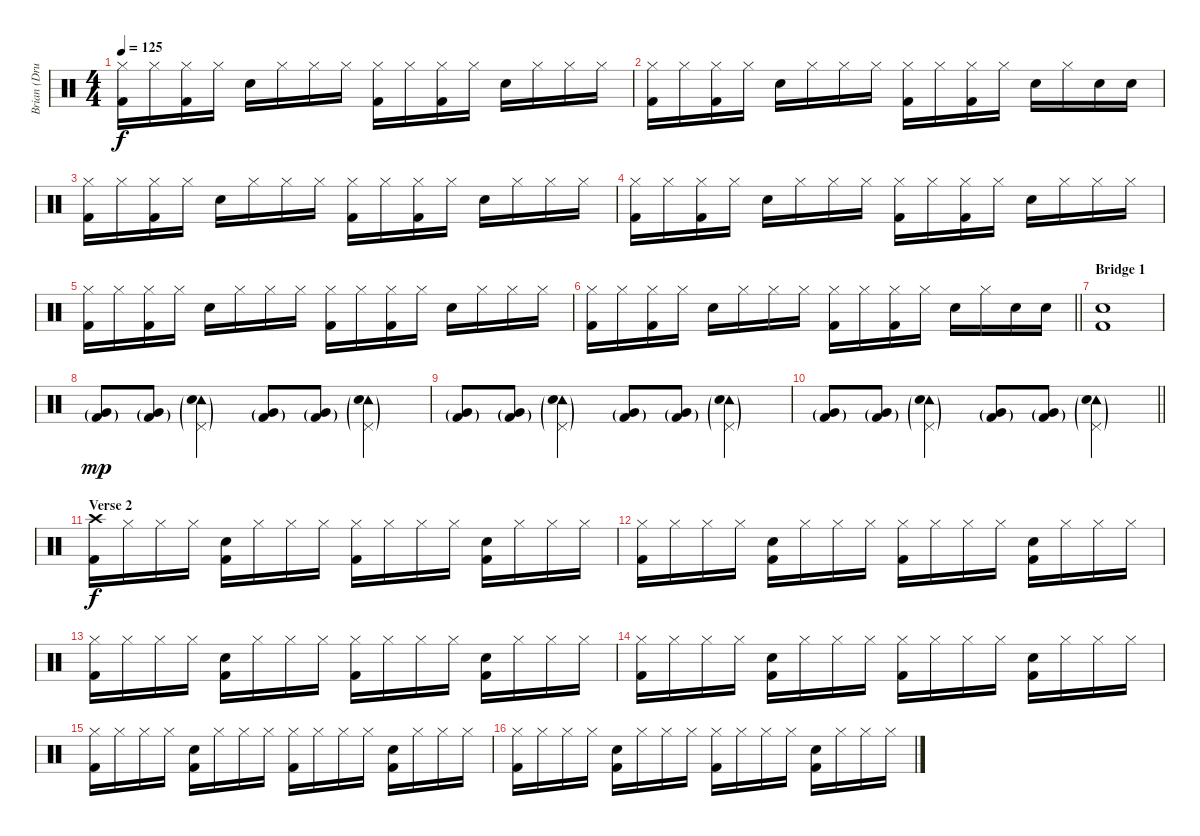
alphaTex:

\track ("Brian (Drums)" "Brian (Dru") {instrument percussion}
\staff {score}
\articulation defaults
\ts (4 4)
\tempo 125
\clef neutral
\ks c
("Hi-Hat (closed)" "Kick (hit) 2").16{dy f} "Hi-Hat (closed)".16 ("Hi-Hat (closed)" "Kick (hit) 2").16 "Hi-Hat (closed)".16 "Electric Snare (hit)".16 "Hi-Hat (closed)".16 "Hi-Hat (closed)".16 "Hi-Hat (closed)".16 ("Hi-Hat (closed)" "Kick (hit) 2").16 "Hi-Hat (closed)".16 ("Hi-Hat (closed)" "Kick (hit) 2").16 "Hi-Hat (closed)".16 "Electric Snare (hit)".16 "Hi-Hat (closed)".16 "Hi-Hat (closed)".16 "Hi-Hat (closed)".16 |
("Hi-Hat (closed)" "Kick (hit) 2").16 "Hi-Hat (closed)".16 ("Hi-Hat (closed)" "Kick (hit) 2").16 "Hi-Hat (closed)".16 "Electric Snare (hit)".16 "Hi-Hat (closed)".16 "Hi-Hat (closed)".16 "Hi-Hat (closed)".16 ("Hi-Hat (closed)" "Kick (hit) 2").16 "Hi-Hat (closed)".16 ("Hi-Hat (closed)" "Kick (hit) 2").16 "Hi-Hat (closed)".16 "Electric Snare (hit)".16 "Hi-Hat (closed)".16 "Electric Snare (hit)".16 "Electric Snare (hit)".16 |
("Hi-Hat (closed)" "Kick (hit) 2").16 "Hi-Hat (closed)".16 ("Hi-Hat (closed)" "Kick (hit) 2").16 "Hi-Hat (closed)".16 "Electric Snare (hit)".16 "Hi-Hat (closed)".16 "Hi-Hat (closed)".16 "Hi-Hat (closed)".16 ("Hi-Hat (closed)" "Kick (hit) 2").16 "Hi-Hat (closed)".16 ("Hi-Hat (closed)" "Kick (hit) 2").16 "Hi-Hat (closed)".16 "Electric Snare (hit)".16 "Hi-Hat (closed)".16 "Hi-Hat (closed)".16 "Hi-Hat (closed)".16 |
("Hi-Hat (closed)" "Kick (hit) 2").16 "Hi-Hat (closed)".16 ("Hi-Hat (closed)" "Kick (hit) 2").16 "Hi-Hat (closed)".16 "Electric Snare (hit)".16 "Hi-Hat (closed)".16 "Hi-Hat (closed)".16 "Hi-Hat (closed)".16 ("Hi-Hat (closed)" "Kick (hit) 2").16 "Hi-Hat (closed)".16 ("Hi-Hat (closed)" "Kick (hit) 2").16 "Hi-Hat (closed)".16 "Electric Snare (hit)".16 "Hi-Hat (closed)".16 "Hi-Hat (closed)".16 "Hi-Hat (closed)".16 |
("Hi-Hat (closed)" "Kick (hit) 2").16 "Hi-Hat (closed)".16 ("Hi-Hat (closed)" "Kick (hit) 2").16 "Hi-Hat (closed)".16 "Electric Snare (hit)".16 "Hi-Hat (closed)".16 "Hi-Hat (closed)".16 "Hi-Hat (closed)".16 ("Hi-Hat (closed)" "Kick (hit) 2").16 "Hi-Hat (closed)".16 ("Hi-Hat (closed)" "Kick (hit) 2").16 "Hi-Hat (closed)".16 "Electric Snare (hit)".16 "Hi-Hat (closed)".16 "Hi-Hat (closed)".16 "Hi-Hat (closed)".16 |
\barLineRight lightlight
("Hi-Hat (closed)" "Kick (hit) 2").16 "Hi-Hat (closed)".16 ("Hi-Hat (closed)" "Kick (hit) 2").16 "Hi-Hat (closed)".16 "Electric Snare (hit)".16 "Hi-Hat (closed)".16 "Hi-Hat (closed)".16 "Hi-Hat (closed)".16 ("Hi-Hat (closed)" "Kick (hit) 2").16 "Hi-Hat (closed)".16 ("Hi-Hat (closed)" "Kick (hit) 2").16 "Hi-Hat (closed)".16 "Electric Snare (hit)".16 "Hi-Hat (closed)".16 "Electric Snare (hit)".16 "Electric Snare (hit)".16 |
\section ("" "Bridge 1")
("Electric Snare (hit)" "Kick (hit) 2").1 |
("Very Low Tom (hit)"{g} "Kick (hit) 2"{g}).8{dy mp} ("Very Low Tom (hit)"{g} "Kick (hit) 2"{g}).8 ("Tambourine (hit)"{g} "Pedal Hi-Hat (hit)"{g} "Hand Clap (hit)"{g}).4 ("Very Low Tom (hit)"{g} "Kick (hit) 2"{g}).8 ("Very Low Tom (hit)"{g} "Kick (hit) 2"{g}).8 ("Tambourine (hit)"{g} "Pedal Hi-Hat (hit)"{g} "Hand Clap (hit)"{g}).4 |
("Very Low Tom (hit)"{g} "Kick (hit) 2"{g}).8 ("Very Low Tom (hit)"{g} "Kick (hit) 2"{g}).8 ("Tambourine (hit)"{g} "Pedal Hi-Hat (hit)"{g} "Hand Clap (hit)"{g}).4 ("Very Low Tom (hit)"{g} "Kick (hit) 2"{g}).8 ("Very Low Tom (hit)"{g} "Kick (hit) 2"{g}).8 ("Tambourine (hit)"{g} "Pedal Hi-Hat (hit)"{g} "Hand Clap (hit)"{g}).4 |
\barLineRight lightlight
("Very Low Tom (hit)"{g} "Kick (hit) 2"{g}).8 ("Very Low Tom (hit)"{g} "Kick (hit) 2"{g}).8 ("Tambourine (hit)"{g} "Pedal Hi-Hat (hit)"{g} "Hand Clap (hit)"{g}).4 ("Very Low Tom (hit)"{g} "Kick (hit) 2"{g}).8 ("Very Low Tom (hit)"{g} "Kick (hit) 2"{g}).8 ("Tambourine (hit)"{g} "Pedal Hi-Hat (hit)"{g} "Hand Clap (hit)"{g}).4 |
\section ("" "Verse 2")
("Crash high (hit)" "Kick (hit) 2").16{dy f} "Hi-Hat (closed)".16 "Hi-Hat (closed)".16 "Hi-Hat (closed)".16 ("Electric Snare (hit)" "Kick (hit) 2").16 "Hi-Hat (closed)".16 "Hi-Hat (closed)".16 "Hi-Hat (closed)".16 ("Hi-Hat (closed)" "Kick (hit) 2").16 "Hi-Hat (closed)".16 "Hi-Hat (closed)".16 "Hi-Hat (closed)".16 ("Electric Snare (hit)" "Kick (hit) 2").16 "Hi-Hat (closed)".16 "Hi-Hat (closed)".16 "Hi-Hat (closed)".16 |
("Hi-Hat (closed)" "Kick (hit) 2").16 "Hi-Hat (closed)".16 "Hi-Hat (closed)".16 "Hi-Hat (closed)".16 ("Electric Snare (hit)" "Kick (hit) 2").16 "Hi-Hat (closed)".16 "Hi-Hat (closed)".16 "Hi-Hat (closed)".16 ("Hi-Hat (closed)" "Kick (hit) 2").16 "Hi-Hat (closed)".16 "Hi-Hat (closed)".16 "Hi-Hat (closed)".16 ("Electric Snare (hit)" "Kick (hit) 2").16 "Hi-Hat (closed)".16 "Hi-Hat (closed)".16 "Hi-Hat (closed)".16 |
("Hi-Hat (closed)" "Kick (hit) 2").16 "Hi-Hat (closed)".16 "Hi-Hat (closed)".16 "Hi-Hat (closed)".16 ("Electric Snare (hit)" "Kick (hit) 2").16 "Hi-Hat (closed)".16 "Hi-Hat (closed)".16 "Hi-Hat (closed)".16 ("Hi-Hat (closed)" "Kick (hit) 2").16 "Hi-Hat (closed)".16 "Hi-Hat (closed)".16 "Hi-Hat (closed)".16 ("Electric Snare (hit)" "Kick (hit) 2").16 "Hi-Hat (closed)".16 "Hi-Hat (closed)".16 "Hi-Hat (closed)".16 |
("Hi-Hat (closed)" "Kick (hit) 2").16 "Hi-Hat (closed)".16 "Hi-Hat (closed)".16 "Hi-Hat (closed)".16 ("Electric Snare (hit)" "Kick (hit) 2").16 "Hi-Hat (closed)".16 "Hi-Hat (closed)".16 "Hi-Hat (closed)".16 ("Hi-Hat (closed)" "Kick (hit) 2").16 "Hi-Hat (closed)".16 "Hi-Hat (closed)".16 "Hi-Hat (closed)".16 ("Electric Snare (hit)" "Kick (hit) 2").16 "Hi-Hat (closed)".16 "Hi-Hat (closed)".16 "Hi-Hat (closed)".16 |
("Hi-Hat (closed)" "Kick (hit) 2").16 "Hi-Hat (closed)".16 "Hi-Hat (closed)".16 "Hi-Hat (closed)".16 ("Electric Snare (hit)" "Kick (hit) 2").16 "Hi-Hat (closed)".16 "Hi-Hat (closed)".16 "Hi-Hat (closed)".16 ("Hi-Hat (closed)" "Kick (hit) 2").16 "Hi-Hat (closed)".16 "Hi-Hat (closed)".16 "Hi-Hat (closed)".16 ("Electric Snare (hit)" "Kick (hit) 2").16 "Hi-Hat (closed)".16 "Hi-Hat (closed)".16 "Hi-Hat (closed)".16 |
("Hi-Hat (closed)" "Kick (hit) 2").16 "Hi-Hat (closed)".16 "Hi-Hat (closed)".16 "Hi-Hat (closed)".16 ("Electric Snare (hit)" "Kick (hit) 2").16 "Hi-Hat (closed)".16 "Hi-Hat (closed)".16 "Hi-Hat (closed)".16 ("Hi-Hat (closed)" "Kick (hit) 2").16 "Hi-Hat (closed)".16 "Hi-Hat (closed)".16 "Hi-Hat (closed)".16 ("Electric Snare (hit)" "Kick (hit) 2").16 "Hi-Hat (closed)".16 "Hi-Hat (closed)".16 "Hi-Hat (closed)".16
